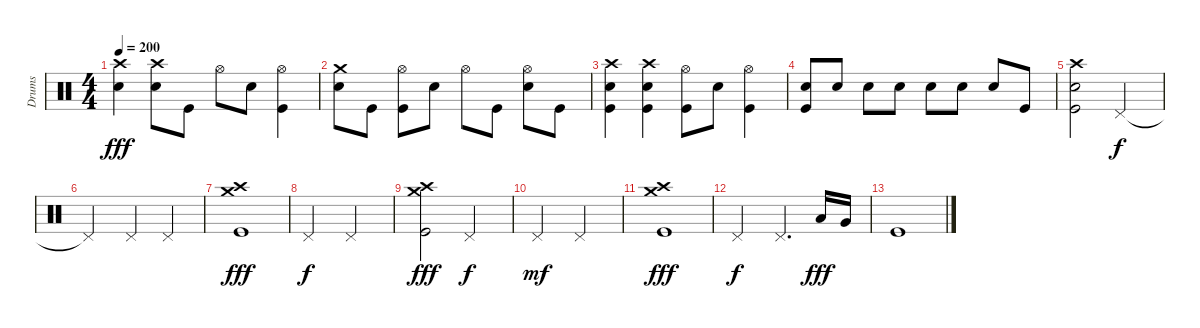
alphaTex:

\track ("Drums" "Drums") {instrument percussion}
\staff {score}
\articulation defaults
\ts (4 4)
\tempo 200
\clef neutral
\ks c
("Crash high (hit)" "Snare (hit) 2").4{dy fff} ("Crash high (hit)" "Snare (hit) 2").8 "Kick (hit)".8 "Hi-Hat (open)".8 "Snare (hit) 2".8 ("Hi-Hat (open)" "Kick (hit)").4 |
("Crash medium (hit)" "Snare (hit) 2").8 "Kick (hit)".8 ("Hi-Hat (open)" "Kick (hit)").8 "Snare (hit) 2".8 "Hi-Hat (open)".8 "Kick (hit)".8 ("Hi-Hat (open)" "Snare (hit) 2").8 "Kick (hit)".8 |
("Crash high (hit)" "Snare (hit) 2" "Kick (hit)").4 ("Crash high (hit)" "Snare (hit) 2" "Kick (hit)").4 ("Hi-Hat (open)" "Kick (hit)").8 "Snare (hit) 2".8 ("Hi-Hat (open)" "Kick (hit)").4 |
("Snare (hit) 2" "Kick (hit)").8 "Snare (hit) 2".8 "Snare (hit) 2".8 "Snare (hit) 2".8 "Snare (hit) 2".8 "Snare (hit) 2".8 "Snare (hit) 2".8 "Kick (hit)".8 |
("Crash high (hit)" "Snare (hit) 2" "Kick (hit)").2 "Pedal Hi-Hat (hit)".2{dy f} |
"Pedal Hi-Hat (hit)"{t}.2 "Pedal Hi-Hat (hit)".4 "Pedal Hi-Hat (hit)".4 |
("Crash medium (hit)" "Crash high (hit)" "Kick (hit)").1{dy fff} |
"Pedal Hi-Hat (hit)".2{dy f} "Pedal Hi-Hat (hit)".2 |
("Crash medium (hit)" "Crash high (hit)" "Kick (hit)").2{dy fff} "Pedal Hi-Hat (hit)".2{dy f} |
"Pedal Hi-Hat (hit)".2{dy mf} "Pedal Hi-Hat (hit)".2 |
("Crash medium (hit)" "Crash high (hit)" "Kick (hit)").1{dy fff} |
"Pedal Hi-Hat (hit)".2{dy f} "Pedal Hi-Hat (hit)".4{d} "Low Tom (hit)".16{dy fff} "Very Low Tom (hit)".16 |
"Kick (hit)".1
